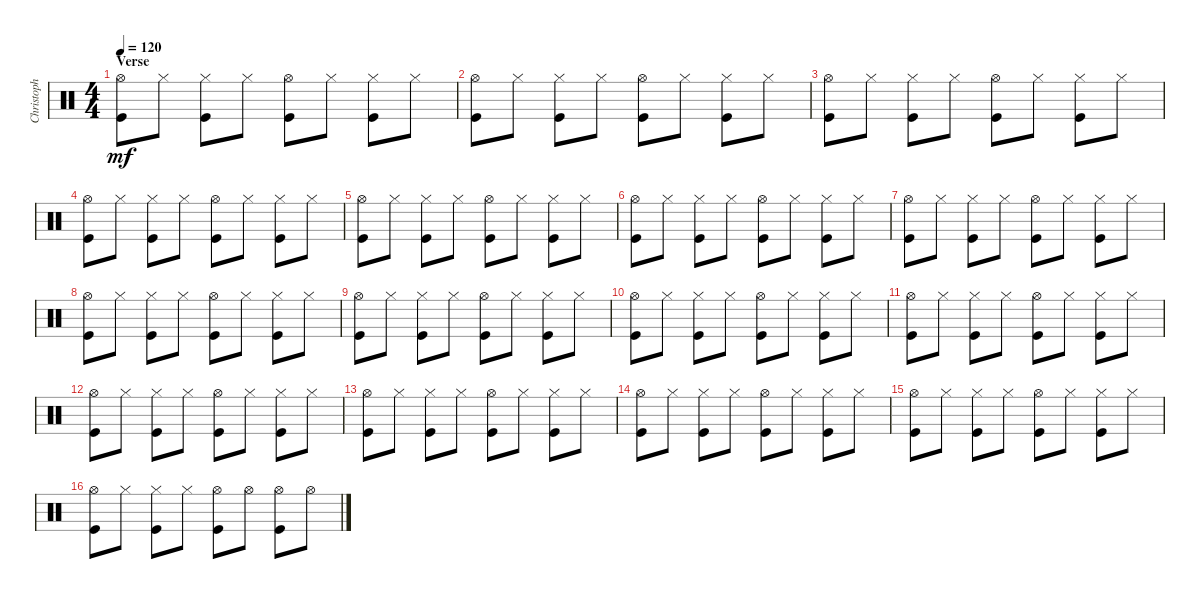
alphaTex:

\track ("Christoph Schneider" "Christoph ") {instrument percussion}
\staff {score}
\articulation defaults
\ts (4 4)
\section ("" "Verse ")
\tempo 120
\clef neutral
\ks c
("Kick (hit)" "Hi-Hat (open)").8{dy mf} "Hi-Hat (closed)".8 ("Hi-Hat (closed)" "Kick (hit)").8 "Hi-Hat (closed)".8 ("Hi-Hat (open)" "Kick (hit)").8 "Hi-Hat (closed)".8 ("Hi-Hat (closed)" "Kick (hit)").8 "Hi-Hat (closed)".8 |
("Kick (hit)" "Hi-Hat (open)").8 "Hi-Hat (closed)".8 ("Hi-Hat (closed)" "Kick (hit)").8 "Hi-Hat (closed)".8 ("Hi-Hat (open)" "Kick (hit)").8 "Hi-Hat (closed)".8 ("Hi-Hat (closed)" "Kick (hit)").8 "Hi-Hat (closed)".8 |
("Kick (hit)" "Hi-Hat (open)").8 "Hi-Hat (closed)".8 ("Hi-Hat (closed)" "Kick (hit)").8 "Hi-Hat (closed)".8 ("Hi-Hat (open)" "Kick (hit)").8 "Hi-Hat (closed)".8 ("Hi-Hat (closed)" "Kick (hit)").8 "Hi-Hat (closed)".8 |
("Kick (hit)" "Hi-Hat (open)").8 "Hi-Hat (closed)".8 ("Hi-Hat (closed)" "Kick (hit)").8 "Hi-Hat (closed)".8 ("Hi-Hat (open)" "Kick (hit)").8 "Hi-Hat (closed)".8 ("Hi-Hat (closed)" "Kick (hit)").8 "Hi-Hat (closed)".8 |
("Kick (hit)" "Hi-Hat (open)").8 "Hi-Hat (closed)".8 ("Hi-Hat (closed)" "Kick (hit)").8 "Hi-Hat (closed)".8 ("Hi-Hat (open)" "Kick (hit)").8 "Hi-Hat (closed)".8 ("Hi-Hat (closed)" "Kick (hit)").8 "Hi-Hat (closed)".8 |
("Kick (hit)" "Hi-Hat (open)").8 "Hi-Hat (closed)".8 ("Hi-Hat (closed)" "Kick (hit)").8 "Hi-Hat (closed)".8 ("Hi-Hat (open)" "Kick (hit)").8 "Hi-Hat (closed)".8 ("Hi-Hat (closed)" "Kick (hit)").8 "Hi-Hat (closed)".8 |
("Kick (hit)" "Hi-Hat (open)").8 "Hi-Hat (closed)".8 ("Hi-Hat (closed)" "Kick (hit)").8 "Hi-Hat (closed)".8 ("Hi-Hat (open)" "Kick (hit)").8 "Hi-Hat (closed)".8 ("Hi-Hat (closed)" "Kick (hit)").8 "Hi-Hat (closed)".8 |
("Kick (hit)" "Hi-Hat (open)").8 "Hi-Hat (closed)".8 ("Hi-Hat (closed)" "Kick (hit)").8 "Hi-Hat (closed)".8 ("Hi-Hat (open)" "Kick (hit)").8 "Hi-Hat (closed)".8 ("Hi-Hat (closed)" "Kick (hit)").8 "Hi-Hat (closed)".8 |
("Kick (hit)" "Hi-Hat (open)").8 "Hi-Hat (closed)".8 ("Hi-Hat (closed)" "Kick (hit)").8 "Hi-Hat (closed)".8 ("Hi-Hat (open)" "Kick (hit)").8 "Hi-Hat (closed)".8 ("Hi-Hat (closed)" "Kick (hit)").8 "Hi-Hat (closed)".8 |
("Kick (hit)" "Hi-Hat (open)").8 "Hi-Hat (closed)".8 ("Hi-Hat (closed)" "Kick (hit)").8 "Hi-Hat (closed)".8 ("Hi-Hat (open)" "Kick (hit)").8 "Hi-Hat (closed)".8 ("Hi-Hat (closed)" "Kick (hit)").8 "Hi-Hat (closed)".8 |
("Kick (hit)" "Hi-Hat (open)").8 "Hi-Hat (closed)".8 ("Hi-Hat (closed)" "Kick (hit)").8 "Hi-Hat (closed)".8 ("Hi-Hat (open)" "Kick (hit)").8 "Hi-Hat (closed)".8 ("Hi-Hat (closed)" "Kick (hit)").8 "Hi-Hat (closed)".8 |
("Kick (hit)" "Hi-Hat (open)").8 "Hi-Hat (closed)".8 ("Hi-Hat (closed)" "Kick (hit)").8 "Hi-Hat (closed)".8 ("Hi-Hat (open)" "Kick (hit)").8 "Hi-Hat (closed)".8 ("Hi-Hat (closed)" "Kick (hit)").8 "Hi-Hat (closed)".8 |
("Kick (hit)" "Hi-Hat (open)").8 "Hi-Hat (closed)".8 ("Hi-Hat (closed)" "Kick (hit)").8 "Hi-Hat (closed)".8 ("Hi-Hat (open)" "Kick (hit)").8 "Hi-Hat (closed)".8 ("Hi-Hat (closed)" "Kick (hit)").8 "Hi-Hat (closed)".8 |
("Kick (hit)" "Hi-Hat (open)").8 "Hi-Hat (closed)".8 ("Hi-Hat (closed)" "Kick (hit)").8 "Hi-Hat (closed)".8 ("Hi-Hat (open)" "Kick (hit)").8 "Hi-Hat (closed)".8 ("Hi-Hat (closed)" "Kick (hit)").8 "Hi-Hat (closed)".8 |
("Kick (hit)" "Hi-Hat (open)").8 "Hi-Hat (closed)".8 ("Hi-Hat (closed)" "Kick (hit)").8 "Hi-Hat (closed)".8 ("Hi-Hat (open)" "Kick (hit)").8 "Hi-Hat (closed)".8 ("Hi-Hat (closed)" "Kick (hit)").8 "Hi-Hat (closed)".8 |
("Kick (hit)" "Hi-Hat (open)").8 "Hi-Hat (closed)".8 ("Hi-Hat (closed)" "Kick (hit)").8 "Hi-Hat (closed)".8 ("Hi-Hat (open)" "Kick (hit)").8 "Hi-Hat (open)".8 ("Hi-Hat (open)" "Kick (hit)").8 "Hi-Hat (open)".8
